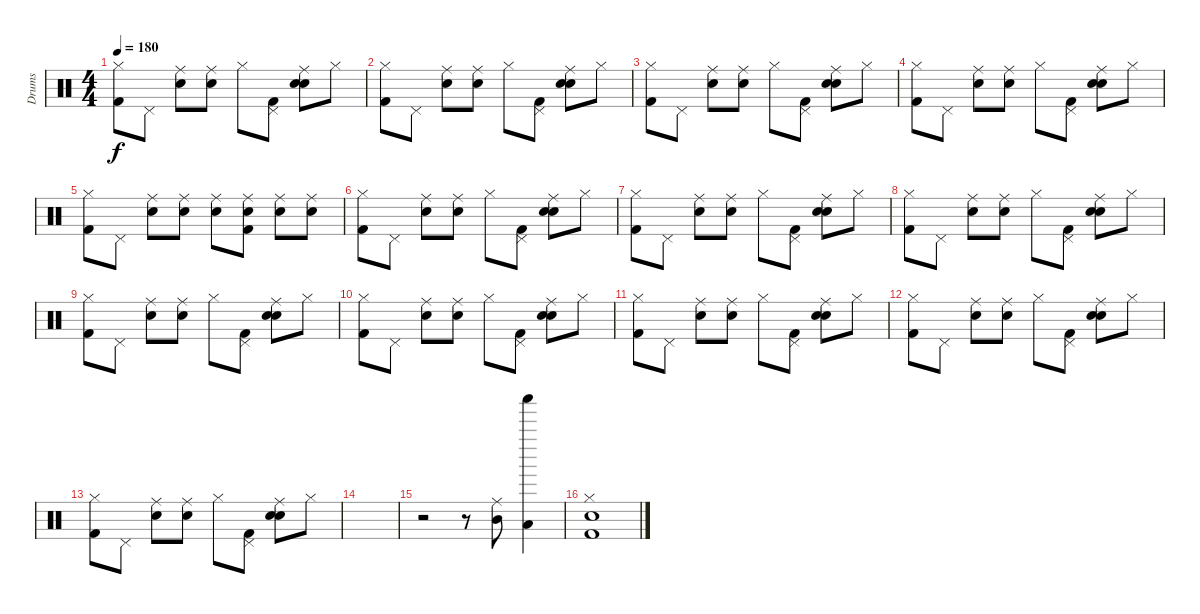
\track ("Drums" "Drums") {instrument percussion}
\staff {score}
\articulation defaults
\ts (4 4)
\tempo 180
\clef neutral
\ks c
("Hi-Hat (closed)" "Kick (hit) 2").8{dy f} "Pedal Hi-Hat (hit)".8 ("Ride (middle)" "Snare (hit) 2").8 ("Ride (middle)" "Snare (hit) 2").8 "Hi-Hat (closed)".8 ("Pedal Hi-Hat (hit)" "Kick (hit) 2").8 ("Hand Clap (hit)" "Ride (middle)" "Snare (hit) 2").8 "Hi-Hat (closed)".8 |
("Hi-Hat (closed)" "Kick (hit) 2").8 "Pedal Hi-Hat (hit)".8 ("Ride (middle)" "Snare (hit) 2").8 ("Ride (middle)" "Snare (hit) 2").8 "Hi-Hat (closed)".8 ("Pedal Hi-Hat (hit)" "Kick (hit) 2").8 ("Hand Clap (hit)" "Ride (middle)" "Snare (hit) 2").8 "Hi-Hat (closed)".8 |
("Hi-Hat (closed)" "Kick (hit) 2").8 "Pedal Hi-Hat (hit)".8 ("Ride (middle)" "Snare (hit) 2").8 ("Ride (middle)" "Snare (hit) 2").8 "Hi-Hat (closed)".8 ("Pedal Hi-Hat (hit)" "Kick (hit) 2").8 ("Hand Clap (hit)" "Ride (middle)" "Snare (hit) 2").8 "Hi-Hat (closed)".8 |
("Hi-Hat (closed)" "Kick (hit) 2").8 "Pedal Hi-Hat (hit)".8 ("Ride (middle)" "Snare (hit) 2").8 ("Ride (middle)" "Snare (hit) 2").8 "Hi-Hat (closed)".8 ("Pedal Hi-Hat (hit)" "Kick (hit) 2").8 ("Hand Clap (hit)" "Ride (middle)" "Snare (hit) 2").8 "Hi-Hat (closed)".8 |
("Hi-Hat (closed)" "Kick (hit) 2").8 "Pedal Hi-Hat (hit)".8 ("Ride (middle)" "Snare (hit) 2").8 ("Ride (middle)" "Snare (hit) 2").8 ("Ride (middle)" "Snare (hit) 2").8 ("Ride (middle)" "Snare (hit) 2" "Kick (hit) 2").8 ("Ride (middle)" "Snare (hit) 2").8 ("Ride (middle)" "Snare (hit) 2").8 |
("Hi-Hat (closed)" "Kick (hit) 2").8 "Pedal Hi-Hat (hit)".8 ("Ride (middle)" "Snare (hit) 2").8 ("Ride (middle)" "Snare (hit) 2").8 "Hi-Hat (closed)".8 ("Pedal Hi-Hat (hit)" "Kick (hit) 2").8 ("Hand Clap (hit)" "Ride (middle)" "Snare (hit) 2").8 "Hi-Hat (closed)".8 |
("Hi-Hat (closed)" "Kick (hit) 2").8 "Pedal Hi-Hat (hit)".8 ("Ride (middle)" "Snare (hit) 2").8 ("Ride (middle)" "Snare (hit) 2").8 "Hi-Hat (closed)".8 ("Pedal Hi-Hat (hit)" "Kick (hit) 2").8 ("Hand Clap (hit)" "Ride (middle)" "Snare (hit) 2").8 "Hi-Hat (closed)".8 |
("Hi-Hat (closed)" "Kick (hit) 2").8 "Pedal Hi-Hat (hit)".8 ("Ride (middle)" "Snare (hit) 2").8 ("Ride (middle)" "Snare (hit) 2").8 "Hi-Hat (closed)".8 ("Pedal Hi-Hat (hit)" "Kick (hit) 2").8 ("Hand Clap (hit)" "Ride (middle)" "Snare (hit) 2").8 "Hi-Hat (closed)".8 |
("Hi-Hat (closed)" "Kick (hit) 2").8 "Pedal Hi-Hat (hit)".8 ("Ride (middle)" "Snare (hit) 2").8 ("Ride (middle)" "Snare (hit) 2").8 "Hi-Hat (closed)".8 ("Pedal Hi-Hat (hit)" "Kick (hit) 2").8 ("Hand Clap (hit)" "Ride (middle)" "Snare (hit) 2").8 "Hi-Hat (closed)".8 |
("Hi-Hat (closed)" "Kick (hit) 2").8 "Pedal Hi-Hat (hit)".8 ("Ride (middle)" "Snare (hit) 2").8 ("Ride (middle)" "Snare (hit) 2").8 "Hi-Hat (closed)".8 ("Pedal Hi-Hat (hit)" "Kick (hit) 2").8 ("Hand Clap (hit)" "Ride (middle)" "Snare (hit) 2").8 "Hi-Hat (closed)".8 |
("Hi-Hat (closed)" "Kick (hit) 2").8 "Pedal Hi-Hat (hit)".8 ("Ride (middle)" "Snare (hit) 2").8 ("Ride (middle)" "Snare (hit) 2").8 "Hi-Hat (closed)".8 ("Pedal Hi-Hat (hit)" "Kick (hit) 2").8 ("Hand Clap (hit)" "Ride (middle)" "Snare (hit) 2").8 "Hi-Hat (closed)".8 |
("Hi-Hat (closed)" "Kick (hit) 2").8 "Pedal Hi-Hat (hit)".8 ("Ride (middle)" "Snare (hit) 2").8 ("Ride (middle)" "Snare (hit) 2").8 "Hi-Hat (closed)".8 ("Pedal Hi-Hat (hit)" "Kick (hit) 2").8 ("Hand Clap (hit)" "Ride (middle)" "Snare (hit) 2").8 "Hi-Hat (closed)".8 |
("Hi-Hat (closed)" "Kick (hit) 2").8 "Pedal Hi-Hat (hit)".8 ("Ride (middle)" "Snare (hit) 2").8 ("Ride (middle)" "Snare (hit) 2").8 "Hi-Hat (closed)".8 ("Pedal Hi-Hat (hit)" "Kick (hit) 2").8 ("Hand Clap (hit)" "Ride (middle)" "Snare (hit) 2").8 "Hi-Hat (closed)".8 |
|
r.2 r.8 ("Ride (middle)" "Mid Tom (hit)").8 ("Shaker (hit)" "Low Tom (hit)").4 |
("Hi-Hat (closed)" "Electric Snare (hit)" "Kick (hit) 2").1
